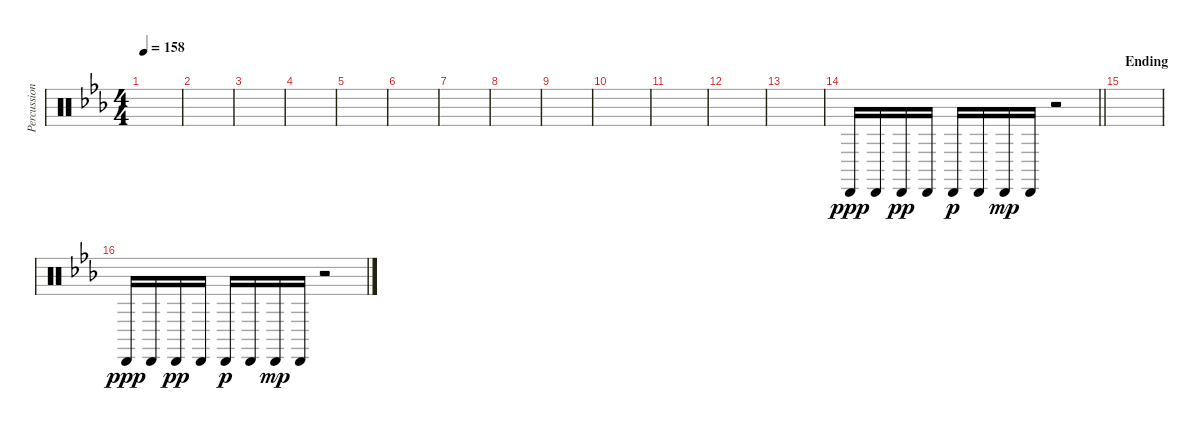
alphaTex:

\track ("Percussion" "Percussion") {instrument percussion}
\staff {score}
\articulation defaults
\ts (4 4)
\tempo 158
\clef neutral
\ks eb
|
|
|
|
|
|
|
|
|
|
|
|
|
\barLineRight lightlight "Cabasa (hit)".16{dy ppp} "Cabasa (hit)".16 "Cabasa (hit)".16{dy pp} "Cabasa (hit)".16 "Cabasa (hit)".16{dy p} "Cabasa (hit)".16 "Cabasa (hit)".16{dy mp} "Cabasa (hit)".16
r.2 |
\section ("" "Ending")
|
"Cabasa (hit)".16{dy ppp} "Cabasa (hit)".16 "Cabasa (hit)".16{dy pp} "Cabasa (hit)".16 "Cabasa (hit)".16{dy p} "Cabasa (hit)".16 "Cabasa (hit)".16{dy mp} "Cabasa (hit)".16 r.2
